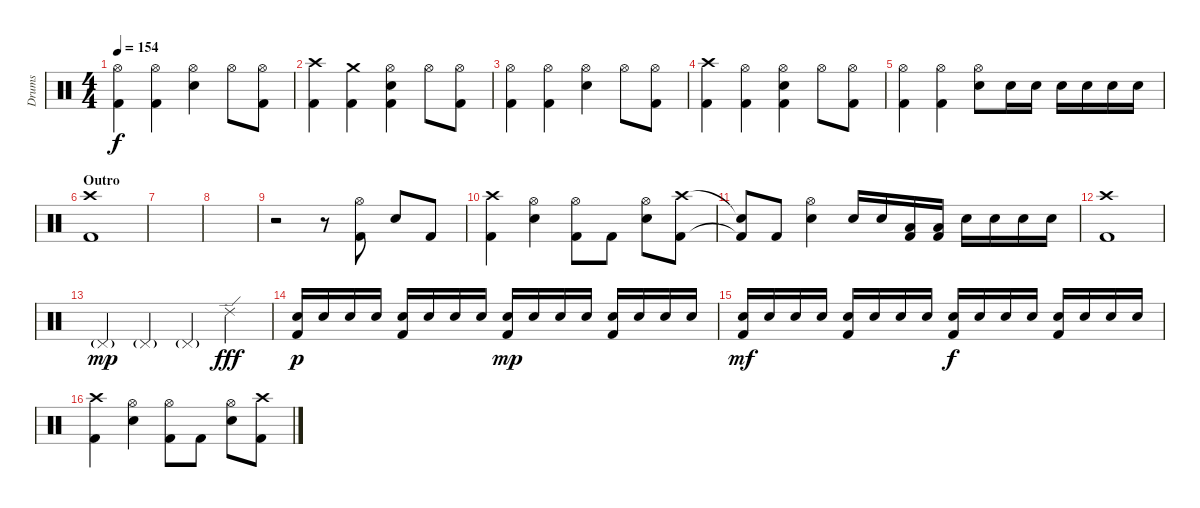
\track ("Drums" "Drums") {instrument percussion}
\staff {score}
\articulation defaults
\ts (4 4)
\tempo 154
\clef neutral
\ks c
("Hi-Hat (open)" "Kick (hit) 2").4{dy f} ("Hi-Hat (open)" "Kick (hit) 2").4 ("Hi-Hat (open)" "Electric Snare (hit)").4 "Hi-Hat (open)".8 ("Hi-Hat (open)" "Kick (hit) 2").8 |
("Crash high (hit)" "Kick (hit) 2").4 ("Crash medium (hit)" "Kick (hit) 2").4 ("Hi-Hat (open)" "Electric Snare (hit)" "Kick (hit) 2").4 "Hi-Hat (open)".8 ("Hi-Hat (open)" "Kick (hit) 2").8 |
("Hi-Hat (open)" "Kick (hit) 2").4 ("Hi-Hat (open)" "Kick (hit) 2").4 ("Hi-Hat (open)" "Electric Snare (hit)").4 "Hi-Hat (open)".8 ("Hi-Hat (open)" "Kick (hit) 2").8 |
("Crash high (hit)" "Kick (hit) 2").4 ("Hi-Hat (open)" "Kick (hit) 2").4 ("Hi-Hat (open)" "Electric Snare (hit)" "Kick (hit) 2").4 "Hi-Hat (open)".8 ("Hi-Hat (open)" "Kick (hit) 2").8 |
("Hi-Hat (open)" "Kick (hit) 2").4 ("Hi-Hat (open)" "Kick (hit) 2").4 ("Hi-Hat (open)" "Electric Snare (hit)").8 "Electric Snare (hit)".16 "Electric Snare (hit)".16 "Electric Snare (hit)".16 "Electric Snare (hit)".16 "Electric Snare (hit)".16 "Electric Snare (hit)".16 |
\section ("" "Outro")
("Crash high (hit)" "Kick (hit) 2").1 |
|
|
r.2 r.8 ("Hi-Hat (open)" "Kick (hit) 2").8 "Electric Snare (hit)".8 "Kick (hit) 2".8 |
("Crash high (hit)" "Kick (hit) 2").4 ("Hi-Hat (open)" "Electric Snare (hit)").4 ("Hi-Hat (open)" "Kick (hit) 2").8 "Kick (hit) 2".8 ("Hi-Hat (open)" "Electric Snare (hit)").8 ("Crash high (hit)" "Kick (hit) 2").8 |
("Snare (hit)"{t} "Kick (hit) 2"{t}).8 "Kick (hit) 2".8 ("Hi-Hat (open)" "Electric Snare (hit)").4 "Electric Snare (hit)".16 "Electric Snare (hit)".16 ("Low Tom (hit)" "Kick (hit) 2").16 ("Low Floor Tom (hit)" "Kick (hit) 2").16 "Electric Snare (hit)".16 "Electric Snare (hit)".16 "Electric Snare (hit)".16 "Electric Snare (hit)".16 |
("Crash high (hit)" "Kick (hit) 2").1 |
"Pedal Hi-Hat (hit)"{g}.4{dy mp} "Pedal Hi-Hat (hit)"{g}.4 "Pedal Hi-Hat (hit)"{g}.4 "Ride (edge) 2".4{dy fff} |
("Electric Snare (hit)" "Kick (hit) 2").16{dy p volume 9} "Electric Snare (hit)".16 "Electric Snare (hit)".16 "Electric Snare (hit)".16 ("Electric Snare (hit)" "Kick (hit) 2").16{volume 10} "Electric Snare (hit)".16 "Electric Snare (hit)".16 "Electric Snare (hit)".16 ("Electric Snare (hit)" "Kick (hit) 2").16{dy mp volume 11} "Electric Snare (hit)".16 "Electric Snare (hit)".16 "Electric Snare (hit)".16 ("Electric Snare (hit)" "Kick (hit) 2").16{volume 12} "Electric Snare (hit)".16 "Electric Snare (hit)".16 "Electric Snare (hit)".16 |
("Electric Snare (hit)" "Kick (hit) 2").16{dy mf volume 13} "Electric Snare (hit)".16 "Electric Snare (hit)".16 "Electric Snare (hit)".16 ("Electric Snare (hit)" "Kick (hit) 2").16{volume 14} "Electric Snare (hit)".16 "Electric Snare (hit)".16 "Electric Snare (hit)".16 ("Electric Snare (hit)" "Kick (hit) 2").16{dy f volume 15} "Electric Snare (hit)".16 "Electric Snare (hit)".16 "Electric Snare (hit)".16 ("Electric Snare (hit)" "Kick (hit) 2").16{volume 16} "Electric Snare (hit)".16 "Electric Snare (hit)".16 "Electric Snare (hit)".16 |
("Crash high (hit)" "Kick (hit) 2").4 ("Hi-Hat (open)" "Electric Snare (hit)").4 ("Hi-Hat (open)" "Kick (hit) 2").8 "Kick (hit) 2".8 ("Hi-Hat (open)" "Electric Snare (hit)").8 ("Crash high (hit)" "Kick (hit) 2").8
